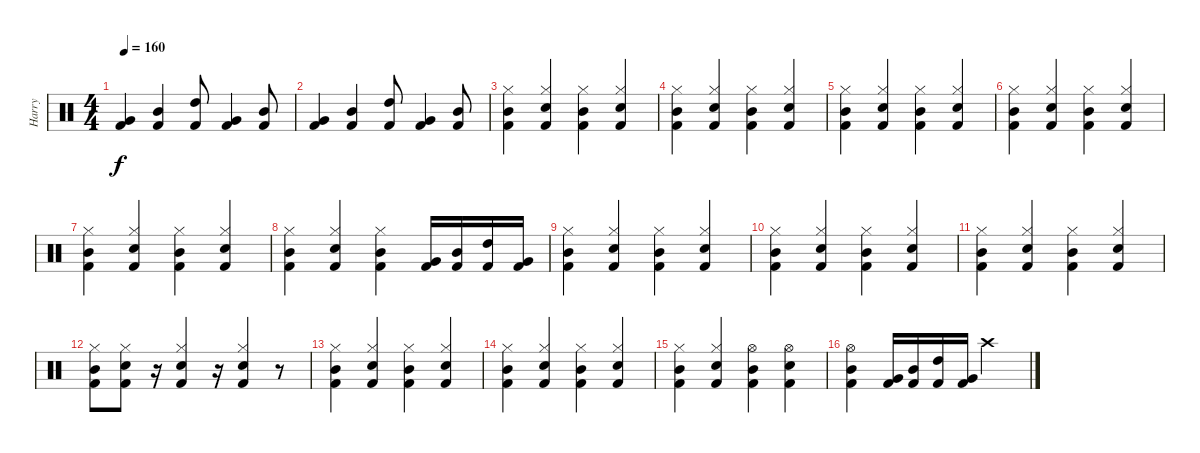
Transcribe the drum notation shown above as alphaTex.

\track ("Harry" "Harry") {instrument percussion}
\staff {score}
\articulation defaults
\ts (4 4)
\tempo 160
\clef neutral
\ks c
("Kick (hit) 2" "Very Low Tom (hit)").4{dy f} ("Kick (hit) 2" "Mid Tom (hit)").4 ("Kick (hit) 2" "High Tom (hit)").8 ("Kick (hit) 2" "Very Low Tom (hit)").4 ("Kick (hit) 2" "Mid Tom (hit)").8 |
("Kick (hit) 2" "Very Low Tom (hit)").4 ("Kick (hit) 2" "Mid Tom (hit)").4 ("Kick (hit) 2" "High Tom (hit)").8 ("Kick (hit) 2" "Very Low Tom (hit)").4 ("Kick (hit) 2" "Mid Tom (hit)").8 |
("Hi-Hat (closed)" "Mid Tom (hit)" "Kick (hit) 2").4 ("Hi-Hat (closed)" "Kick (hit) 2" "Snare (hit) 2").4 ("Hi-Hat (closed)" "Mid Tom (hit)" "Kick (hit) 2").4 ("Hi-Hat (closed)" "Kick (hit) 2" "Snare (hit) 2").4 |
("Hi-Hat (closed)" "Mid Tom (hit)" "Kick (hit) 2").4 ("Hi-Hat (closed)" "Kick (hit) 2" "Snare (hit) 2").4 ("Hi-Hat (closed)" "Mid Tom (hit)" "Kick (hit) 2").4 ("Hi-Hat (closed)" "Kick (hit) 2" "Snare (hit) 2").4 |
("Hi-Hat (closed)" "Mid Tom (hit)" "Kick (hit) 2").4 ("Hi-Hat (closed)" "Kick (hit) 2" "Snare (hit) 2").4 ("Hi-Hat (closed)" "Mid Tom (hit)" "Kick (hit) 2").4 ("Hi-Hat (closed)" "Kick (hit) 2" "Snare (hit) 2").4 |
("Hi-Hat (closed)" "Mid Tom (hit)" "Kick (hit) 2").4 ("Hi-Hat (closed)" "Kick (hit) 2" "Snare (hit) 2").4 ("Hi-Hat (closed)" "Mid Tom (hit)" "Kick (hit) 2").4 ("Hi-Hat (closed)" "Kick (hit) 2" "Snare (hit) 2").4 |
("Hi-Hat (closed)" "Mid Tom (hit)" "Kick (hit) 2").4 ("Hi-Hat (closed)" "Kick (hit) 2" "Snare (hit) 2").4 ("Hi-Hat (closed)" "Mid Tom (hit)" "Kick (hit) 2").4 ("Hi-Hat (closed)" "Kick (hit) 2" "Snare (hit) 2").4 |
("Hi-Hat (closed)" "Mid Tom (hit)" "Kick (hit) 2").4 ("Hi-Hat (closed)" "Kick (hit) 2" "Snare (hit) 2").4 ("Hi-Hat (closed)" "Mid Tom (hit)" "Kick (hit) 2").4 ("Very Low Tom (hit)" "Kick (hit) 2").16 ("Mid Tom (hit)" "Kick (hit) 2").16 ("High Tom (hit)" "Kick (hit) 2").16 ("Very Low Tom (hit)" "Kick (hit) 2").16 |
("Hi-Hat (closed)" "Mid Tom (hit)" "Kick (hit) 2").4 ("Hi-Hat (closed)" "Kick (hit) 2" "Snare (hit) 2").4 ("Hi-Hat (closed)" "Mid Tom (hit)" "Kick (hit) 2").4 ("Hi-Hat (closed)" "Kick (hit) 2" "Snare (hit) 2").4 |
("Hi-Hat (closed)" "Mid Tom (hit)" "Kick (hit) 2").4 ("Hi-Hat (closed)" "Kick (hit) 2" "Snare (hit) 2").4 ("Hi-Hat (closed)" "Mid Tom (hit)" "Kick (hit) 2").4 ("Hi-Hat (closed)" "Kick (hit) 2" "Snare (hit) 2").4 |
("Hi-Hat (closed)" "Mid Tom (hit)" "Kick (hit) 2").4 ("Hi-Hat (closed)" "Kick (hit) 2" "Snare (hit) 2").4 ("Hi-Hat (closed)" "Mid Tom (hit)" "Kick (hit) 2").4 ("Hi-Hat (closed)" "Kick (hit) 2" "Snare (hit) 2").4 |
("Hi-Hat (closed)" "Mid Tom (hit)" "Kick (hit) 2").8 ("Hi-Hat (closed)" "Kick (hit) 2" "Snare (hit) 2").8 r.16 ("Hi-Hat (closed)" "Kick (hit) 2" "Snare (hit) 2").4 r.16 ("Hi-Hat (closed)" "Kick (hit) 2" "Snare (hit) 2").4 r.8 |
("Hi-Hat (closed)" "Mid Tom (hit)" "Kick (hit) 2").4 ("Hi-Hat (closed)" "Kick (hit) 2" "Snare (hit) 2").4 ("Hi-Hat (closed)" "Mid Tom (hit)" "Kick (hit) 2").4 ("Hi-Hat (closed)" "Kick (hit) 2" "Snare (hit) 2").4 |
("Hi-Hat (closed)" "Mid Tom (hit)" "Kick (hit) 2").4 ("Hi-Hat (closed)" "Kick (hit) 2" "Snare (hit) 2").4 ("Hi-Hat (closed)" "Mid Tom (hit)" "Kick (hit) 2").4 ("Hi-Hat (closed)" "Kick (hit) 2" "Snare (hit) 2").4 |
("Hi-Hat (closed)" "Mid Tom (hit)" "Kick (hit) 2").4 ("Hi-Hat (closed)" "Kick (hit) 2" "Snare (hit) 2").4 ("Hi-Hat (open)" "Mid Tom (hit)" "Kick (hit) 2").4 ("Hi-Hat (open)" "Kick (hit) 2" "Snare (hit) 2").4 |
("Hi-Hat (open)" "Mid Tom (hit)" "Kick (hit) 2").4 ("Very Low Tom (hit)" "Kick (hit) 2").16 ("Mid Tom (hit)" "Kick (hit) 2").16 ("High Tom (hit)" "Kick (hit) 2").16 ("Very Low Tom (hit)" "Kick (hit) 2").16 "Crash high (hit)".2
